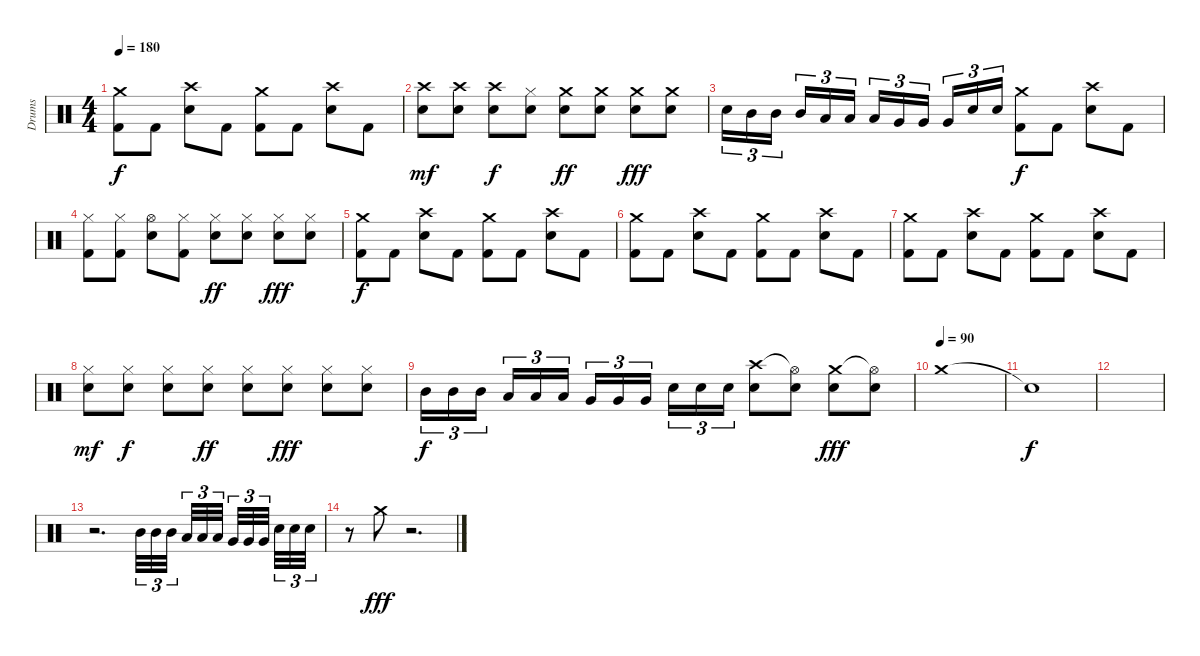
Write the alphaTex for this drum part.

\track ("Drums" "Drums") {instrument percussion}
\staff {score}
\articulation defaults
\ts (4 4)
\tempo 180
\clef neutral
\ks c
("Crash medium (hit)" "Kick (hit) 2").8{dy f} "Kick (hit) 2".8 ("Crash high (hit)" "Snare (hit) 2").8 "Kick (hit) 2".8 ("Crash medium (hit)" "Kick (hit) 2").8 "Kick (hit) 2".8 ("Crash high (hit)" "Snare (hit) 2").8 "Kick (hit) 2".8 |
("Crash high (hit)" "Snare (hit) 2").8{dy mf} ("Crash high (hit)" "Snare (hit) 2").8 ("Crash high (hit)" "Snare (hit) 2").8{dy f} ("Hi-Hat (closed)" "Snare (hit) 2").8 ("Crash medium (hit)" "Snare (hit) 2").8{dy ff} ("Crash medium (hit)" "Snare (hit) 2").8 ("Crash medium (hit)" "Snare (hit) 2").8{dy fff} ("Crash medium (hit)" "Snare (hit) 2").8 |
"Snare (hit) 2".16{tu (3 2)} "Mid Tom (hit)".16{tu (3 2)} "Mid Tom (hit)".16{tu (3 2) beam splitsecondary} "Mid Tom (hit)".16{tu (3 2)} "Low Tom (hit)".16{tu (3 2)} "Low Tom (hit)".16{tu (3 2)} "Low Tom (hit)".16{tu (3 2)} "Very Low Tom (hit)".16{tu (3 2)} "Very Low Tom (hit)".16{tu (3 2) beam splitsecondary} "Very Low Tom (hit)".16{tu (3 2)} "Snare (hit) 2".16{tu (3 2)} "Snare (hit) 2".16{tu (3 2)} ("Crash medium (hit)" "Kick (hit) 2").8{dy f} "Kick (hit) 2".8 ("Crash high (hit)" "Snare (hit) 2").8 "Kick (hit) 2".8 |
("Hi-Hat (closed)" "Kick (hit) 2").8 ("Hi-Hat (closed)" "Kick (hit) 2").8 ("Hi-Hat (open)" "Snare (hit) 2").8 ("Hi-Hat (closed)" "Kick (hit) 2").8 ("Hi-Hat (closed)" "Snare (hit) 2").8{dy ff} ("Hi-Hat (closed)" "Snare (hit) 2").8 ("Hi-Hat (closed)" "Snare (hit) 2").8{dy fff} ("Hi-Hat (closed)" "Snare (hit) 2").8 |
("Crash medium (hit)" "Kick (hit) 2").8{dy f} "Kick (hit) 2".8 ("Crash high (hit)" "Snare (hit) 2").8 "Kick (hit) 2".8 ("Crash medium (hit)" "Kick (hit) 2").8 "Kick (hit) 2".8 ("Crash high (hit)" "Snare (hit) 2").8 "Kick (hit) 2".8 |
("Crash medium (hit)" "Kick (hit) 2").8 "Kick (hit) 2".8 ("Crash high (hit)" "Snare (hit) 2").8 "Kick (hit) 2".8 ("Crash medium (hit)" "Kick (hit) 2").8 "Kick (hit) 2".8 ("Crash high (hit)" "Snare (hit) 2").8 "Kick (hit) 2".8 |
("Crash medium (hit)" "Kick (hit) 2").8 "Kick (hit) 2".8 ("Crash high (hit)" "Snare (hit) 2").8 "Kick (hit) 2".8 ("Crash medium (hit)" "Kick (hit) 2").8 "Kick (hit) 2".8 ("Crash high (hit)" "Snare (hit) 2").8 "Kick (hit) 2".8 |
("Hi-Hat (closed)" "Snare (hit) 2").8{dy mf} ("Hi-Hat (closed)" "Snare (hit) 2").8{dy f} ("Hi-Hat (closed)" "Snare (hit) 2").8 ("Hi-Hat (closed)" "Snare (hit) 2").8{dy ff} ("Hi-Hat (closed)" "Snare (hit) 2").8 ("Hi-Hat (closed)" "Snare (hit) 2").8{dy fff} ("Hi-Hat (closed)" "Snare (hit) 2").8 ("Hi-Hat (closed)" "Snare (hit) 2").8 |
"Mid Tom (hit)".16{tu (3 2) dy f} "Mid Tom (hit)".16{tu (3 2)} "Mid Tom (hit)".16{tu (3 2) beam splitsecondary} "Low Tom (hit)".16{tu (3 2)} "Low Tom (hit)".16{tu (3 2)} "Low Tom (hit)".16{tu (3 2)} "Very Low Tom (hit)".16{tu (3 2)} "Very Low Tom (hit)".16{tu (3 2)} "Very Low Tom (hit)".16{tu (3 2) beam splitsecondary} "Snare (hit) 2".16{tu (3 2)} "Snare (hit) 2".16{tu (3 2)} "Snare (hit) 2".16{tu (3 2)} ("Crash high (hit)" "Snare (hit) 2").8 ("Hi-Hat (open)"{t} "Snare (hit) 2").8 ("Crash medium (hit)" "Snare (hit) 2").8{dy fff} ("Hi-Hat (open)"{t} "Snare (hit) 2").8 |
\tempo (90)
"Crash medium (hit)".1 |
"Snare (hit)"{t}.1{dy f} |
|
r.2{d} "Mid Tom (hit)".32{tu (3 2)} "Mid Tom (hit)".32{tu (3 2)} "Mid Tom (hit)".32{tu (3 2) beam splitsecondary} "Low Tom (hit)".32{tu (3 2)} "Low Tom (hit)".32{tu (3 2)} "Low Tom (hit)".32{tu (3 2) beam splitsecondary} "Very Low Tom (hit)".32{tu (3 2)} "Very Low Tom (hit)".32{tu (3 2)} "Very Low Tom (hit)".32{tu (3 2) beam splitsecondary} "Snare (hit) 2".32{tu (3 2)} "Snare (hit) 2".32{tu (3 2)} "Snare (hit) 2".32{tu (3 2)} |
r.8 "Crash medium (hit)".8{dy fff} r.2{d}
